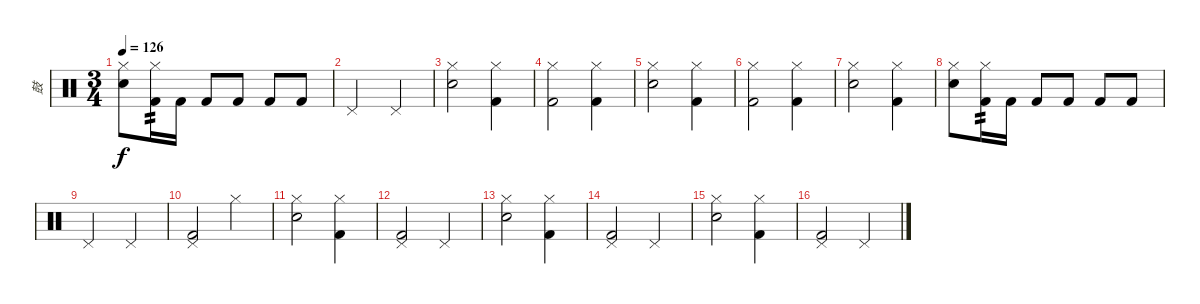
\track ("鼓" "鼓") {instrument percussion}
\staff {score}
\articulation defaults
\ts (3 4)
\tempo 126
\clef neutral
\ks c
("Snare (hit) 2" "Hi-Hat (closed)").8{dy f} ("Kick (hit) 2" "Hi-Hat (closed)").16{tp 2} "Kick (hit) 2".16 "Kick (hit) 2".8 "Kick (hit) 2".8 "Kick (hit) 2".8 "Kick (hit) 2".8 |
"Pedal Hi-Hat (hit)".2 "Pedal Hi-Hat (hit)".4 |
("Snare (hit) 2" "Hi-Hat (closed)").2 ("Kick (hit) 2" "Hi-Hat (closed)").4 |
("Kick (hit) 2" "Hi-Hat (closed)").2 ("Kick (hit) 2" "Hi-Hat (closed)").4 |
("Snare (hit) 2" "Hi-Hat (closed)").2 ("Kick (hit) 2" "Hi-Hat (closed)").4 |
("Kick (hit) 2" "Hi-Hat (closed)").2 ("Kick (hit) 2" "Hi-Hat (closed)").4 |
("Snare (hit) 2" "Hi-Hat (closed)").2 ("Kick (hit) 2" "Hi-Hat (closed)").4 |
("Snare (hit) 2" "Hi-Hat (closed)").8 ("Kick (hit) 2" "Hi-Hat (closed)").16{tp 2} "Kick (hit) 2".16 "Kick (hit) 2".8 "Kick (hit) 2".8 "Kick (hit) 2".8 "Kick (hit) 2".8 |
"Pedal Hi-Hat (hit)".2 "Pedal Hi-Hat (hit)".4 |
("Kick (hit) 2" "Pedal Hi-Hat (hit)").2 "Hi-Hat (closed)".4 |
("Snare (hit) 2" "Hi-Hat (closed)").2 ("Kick (hit) 2" "Hi-Hat (closed)").4 |
("Kick (hit) 2" "Pedal Hi-Hat (hit)").2 "Pedal Hi-Hat (hit)".4 |
("Snare (hit) 2" "Hi-Hat (closed)").2 ("Kick (hit) 2" "Hi-Hat (closed)").4 |
("Kick (hit) 2" "Pedal Hi-Hat (hit)").2 "Pedal Hi-Hat (hit)".4 |
("Snare (hit) 2" "Hi-Hat (closed)").2 ("Kick (hit) 2" "Hi-Hat (closed)").4 |
("Kick (hit) 2" "Pedal Hi-Hat (hit)").2 "Pedal Hi-Hat (hit)".4
